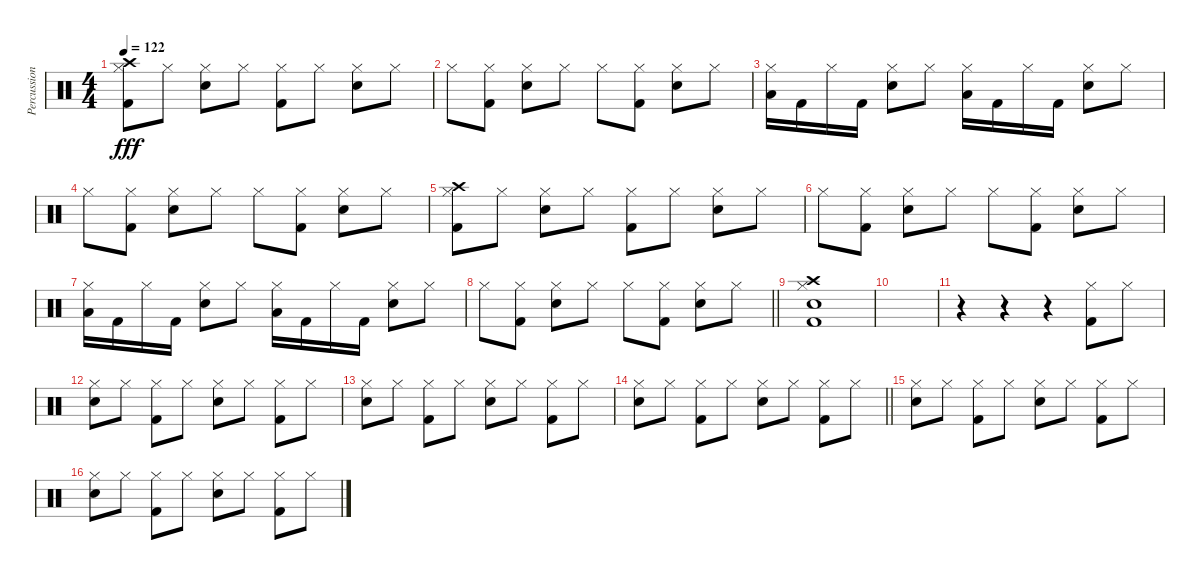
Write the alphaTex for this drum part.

\track ("Percussion" "Percussion") {instrument percussion}
\staff {score}
\articulation defaults
\ts (4 4)
\tempo 122
\clef neutral
\ks c
("Crash high (hit)" "Hi-Hat (closed)" "Kick (hit) 2").8{dy fff} "Hi-Hat (closed)".8 ("Hi-Hat (closed)" "Electric Snare (hit)").8 "Hi-Hat (closed)".8 ("Hi-Hat (closed)" "Kick (hit) 2").8 "Hi-Hat (closed)".8 ("Hi-Hat (closed)" "Electric Snare (hit)").8 "Hi-Hat (closed)".8 |
"Hi-Hat (closed)".8 ("Hi-Hat (closed)" "Kick (hit) 2").8 ("Hi-Hat (closed)" "Electric Snare (hit)").8 "Hi-Hat (closed)".8 "Hi-Hat (closed)".8 ("Hi-Hat (closed)" "Kick (hit) 2").8 ("Hi-Hat (closed)" "Electric Snare (hit)").8 "Hi-Hat (closed)".8 |
("Hi-Hat (closed)" "Low Tom (hit)").16 "Kick (hit) 2".16 "Hi-Hat (closed)".16 "Kick (hit) 2".16 ("Hi-Hat (closed)" "Electric Snare (hit)").8 "Hi-Hat (closed)".8 ("Hi-Hat (closed)" "Low Tom (hit)").16 "Kick (hit) 2".16 "Hi-Hat (closed)".16 "Kick (hit) 2".16 ("Hi-Hat (closed)" "Electric Snare (hit)").8 "Hi-Hat (closed)".8 |
"Hi-Hat (closed)".8 ("Hi-Hat (closed)" "Kick (hit) 2").8 ("Hi-Hat (closed)" "Electric Snare (hit)").8 "Hi-Hat (closed)".8 "Hi-Hat (closed)".8 ("Hi-Hat (closed)" "Kick (hit) 2").8 ("Hi-Hat (closed)" "Electric Snare (hit)").8 "Hi-Hat (closed)".8 |
("Crash high (hit)" "Hi-Hat (closed)" "Kick (hit) 2").8 "Hi-Hat (closed)".8 ("Hi-Hat (closed)" "Electric Snare (hit)").8 "Hi-Hat (closed)".8 ("Hi-Hat (closed)" "Kick (hit) 2").8 "Hi-Hat (closed)".8 ("Hi-Hat (closed)" "Electric Snare (hit)").8 "Hi-Hat (closed)".8 |
"Hi-Hat (closed)".8 ("Hi-Hat (closed)" "Kick (hit) 2").8 ("Hi-Hat (closed)" "Electric Snare (hit)").8 "Hi-Hat (closed)".8 "Hi-Hat (closed)".8 ("Hi-Hat (closed)" "Kick (hit) 2").8 ("Hi-Hat (closed)" "Electric Snare (hit)").8 "Hi-Hat (closed)".8 |
("Hi-Hat (closed)" "Low Tom (hit)").16 "Kick (hit) 2".16 "Hi-Hat (closed)".16 "Kick (hit) 2".16 ("Hi-Hat (closed)" "Electric Snare (hit)").8 "Hi-Hat (closed)".8 ("Hi-Hat (closed)" "Low Tom (hit)").16 "Kick (hit) 2".16 "Hi-Hat (closed)".16 "Kick (hit) 2".16 ("Hi-Hat (closed)" "Electric Snare (hit)").8 "Hi-Hat (closed)".8 |
\barLineRight lightlight "Hi-Hat (closed)".8
("Hi-Hat (closed)" "Kick (hit) 2").8 ("Hi-Hat (closed)" "Electric Snare (hit)").8 "Hi-Hat (closed)".8 "Hi-Hat (closed)".8 ("Hi-Hat (closed)" "Kick (hit) 2").8 ("Hi-Hat (closed)" "Electric Snare (hit)").8 "Hi-Hat (closed)".8 |
("Crash high (hit)" "Hi-Hat (closed)" "Electric Snare (hit)" "Kick (hit) 2").1 |
|
r.4 r.4 r.4 ("Hi-Hat (closed)" "Kick (hit) 2").8 "Hi-Hat (closed)".8 |
("Hi-Hat (closed)" "Electric Snare (hit)").8 "Hi-Hat (closed)".8 ("Hi-Hat (closed)" "Kick (hit) 2").8 "Hi-Hat (closed)".8 ("Hi-Hat (closed)" "Electric Snare (hit)").8 "Hi-Hat (closed)".8 ("Hi-Hat (closed)" "Kick (hit) 2").8 "Hi-Hat (closed)".8 |
("Hi-Hat (closed)" "Electric Snare (hit)").8 "Hi-Hat (closed)".8 ("Hi-Hat (closed)" "Kick (hit) 2").8 "Hi-Hat (closed)".8 ("Hi-Hat (closed)" "Electric Snare (hit)").8 "Hi-Hat (closed)".8 ("Hi-Hat (closed)" "Kick (hit) 2").8 "Hi-Hat (closed)".8 |
\barLineRight lightlight
("Hi-Hat (closed)" "Electric Snare (hit)").8 "Hi-Hat (closed)".8 ("Hi-Hat (closed)" "Kick (hit) 2").8 "Hi-Hat (closed)".8 ("Hi-Hat (closed)" "Electric Snare (hit)").8 "Hi-Hat (closed)".8 ("Hi-Hat (closed)" "Kick (hit) 2").8 "Hi-Hat (closed)".8 |
("Hi-Hat (closed)" "Electric Snare (hit)").8 "Hi-Hat (closed)".8 ("Hi-Hat (closed)" "Kick (hit) 2").8 "Hi-Hat (closed)".8 ("Hi-Hat (closed)" "Electric Snare (hit)").8 "Hi-Hat (closed)".8 ("Hi-Hat (closed)" "Kick (hit) 2").8 "Hi-Hat (closed)".8 |
("Hi-Hat (closed)" "Electric Snare (hit)").8 "Hi-Hat (closed)".8 ("Hi-Hat (closed)" "Kick (hit) 2").8 "Hi-Hat (closed)".8 ("Hi-Hat (closed)" "Electric Snare (hit)").8 "Hi-Hat (closed)".8 ("Hi-Hat (closed)" "Kick (hit) 2").8 "Hi-Hat (closed)".8
